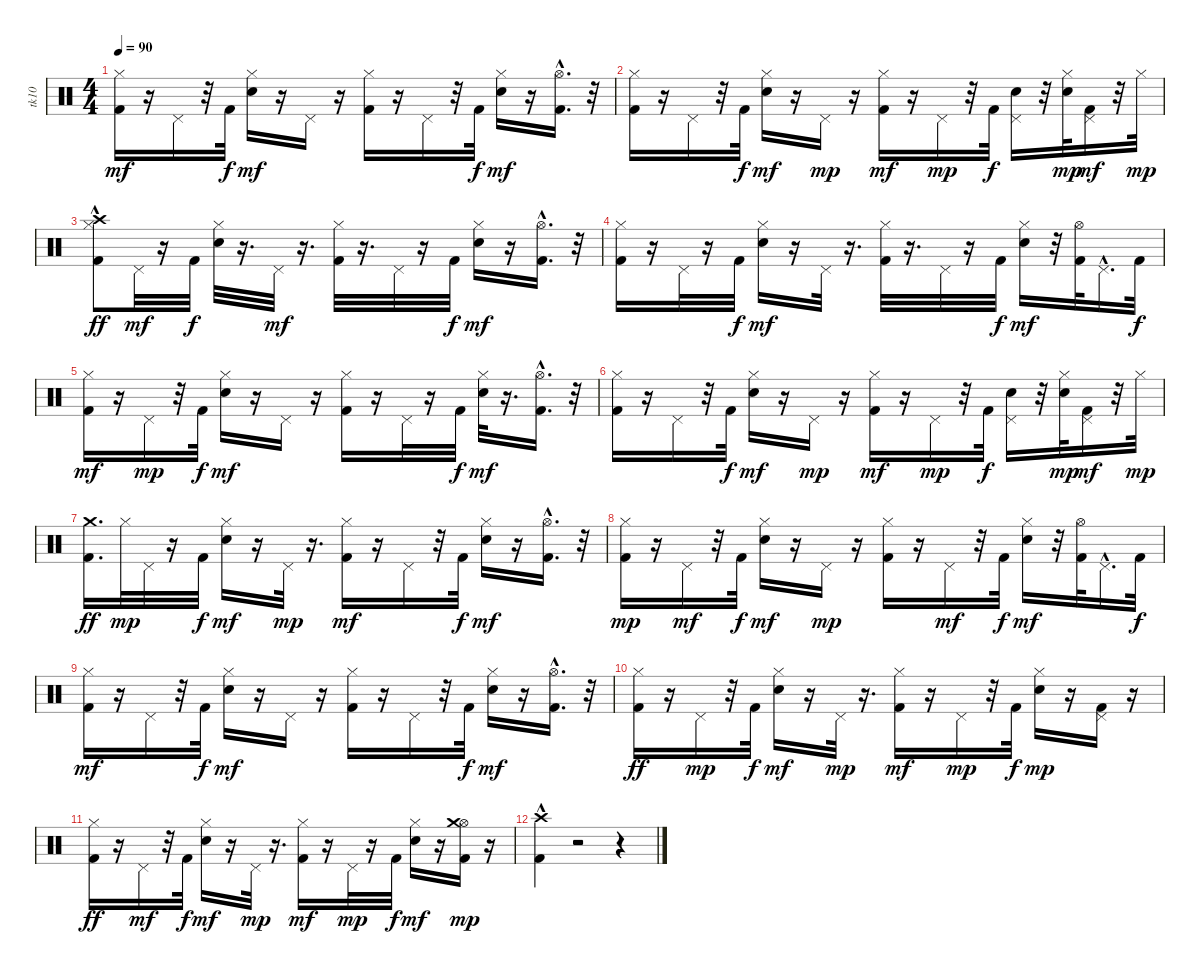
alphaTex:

\track ("tk10" "tk10") {instrument percussion}
\staff {score}
\articulation defaults
\ts (4 4)
\tempo 90
\clef neutral
\ks c
("Kick (hit) 2" "Hi-Hat (closed)").16{dy mf} r.16 "Pedal Hi-Hat (hit)".16 r.32 "Kick (hit) 2".32{dy f} ("Hi-Hat (closed)" "Electric Snare (hit)").16{dy mf} r.16 "Pedal Hi-Hat (hit)".16 r.16 ("Hi-Hat (closed)" "Kick (hit) 2").16 r.16 "Pedal Hi-Hat (hit)".16 r.32 "Kick (hit) 2".32{dy f} ("Hi-Hat (closed)" "Electric Snare (hit)").16{dy mf} r.16 ("Kick (hit) 2" "Hi-Hat (open)"{hac}).16{d} r.32 |
("Hi-Hat (closed)" "Kick (hit) 2").16 r.16 "Pedal Hi-Hat (hit)".16 r.32 "Kick (hit) 2".32{dy f} ("Electric Snare (hit)" "Hi-Hat (closed)").16{dy mf} r.16 "Pedal Hi-Hat (hit)".16{dy mp} r.16 ("Kick (hit) 2" "Hi-Hat (closed)").16{dy mf} r.16 "Pedal Hi-Hat (hit)".16{dy mp} r.32 "Kick (hit) 2".32{dy f} ("Electric Snare (hit)" "Pedal Hi-Hat (hit)").16 r.32 ("Electric Snare (hit)" "Hi-Hat (closed)").32{dy mp} ("Kick (hit) 2" "Pedal Hi-Hat (hit)").16{dy mf} r.32 "Hi-Hat (closed)".32{dy mp} |
("Crash high (hit)"{hac} "Kick (hit) 2" "Hi-Hat (closed)").8{dy ff} "Pedal Hi-Hat (hit)".32{dy mf} r.16 "Kick (hit) 2".32{dy f} ("Electric Snare (hit)" "Hi-Hat (closed)").32 r.16{d} "Pedal Hi-Hat (hit)".32{dy mf} r.16{d} ("Kick (hit) 2" "Hi-Hat (closed)").32 r.16{d} "Pedal Hi-Hat (hit)".32 r.16 "Kick (hit) 2".32{dy f} ("Electric Snare (hit)" "Hi-Hat (closed)").16{dy mf} r.16 ("Kick (hit) 2" "Hi-Hat (open)"{hac}).16{d} r.32 |
("Hi-Hat (closed)" "Kick (hit) 2").16 r.16 "Pedal Hi-Hat (hit)".32 r.16 "Kick (hit) 2".32{dy f} ("Electric Snare (hit)" "Hi-Hat (closed)").16{dy mf} r.16 "Pedal Hi-Hat (hit)".32 r.16{d} ("Kick (hit) 2" "Hi-Hat (closed)").32 r.16{d} "Pedal Hi-Hat (hit)".32 r.16 "Kick (hit) 2".32{dy f} ("Electric Snare (hit)" "Hi-Hat (closed)").16{dy mf} r.32 ("Kick (hit) 2" "Hi-Hat (open)").32 "Pedal Hi-Hat (hit)"{hac}.16{d} "Kick (hit) 2".32{dy f} |
("Kick (hit) 2" "Hi-Hat (closed)").16{dy mf} r.16 "Pedal Hi-Hat (hit)".16{dy mp} r.32 "Kick (hit) 2".32{dy f} ("Electric Snare (hit)" "Hi-Hat (closed)").16{dy mf} r.16 "Pedal Hi-Hat (hit)".16 r.16 ("Hi-Hat (closed)" "Kick (hit) 2").16 r.16 "Pedal Hi-Hat (hit)".32 r.16 "Kick (hit) 2".32{dy f} ("Electric Snare (hit)" "Hi-Hat (closed)").32{dy mf} r.16{d} ("Hi-Hat (open)"{hac} "Kick (hit) 2").16{d} r.32 |
("Hi-Hat (closed)" "Kick (hit) 2").16 r.16 "Pedal Hi-Hat (hit)".16 r.32 "Kick (hit) 2".32{dy f} ("Electric Snare (hit)" "Hi-Hat (closed)").16{dy mf} r.16 "Pedal Hi-Hat (hit)".16{dy mp} r.16 ("Kick (hit) 2" "Hi-Hat (closed)").16{dy mf} r.16 "Pedal Hi-Hat (hit)".16{dy mp} r.32 "Kick (hit) 2".32{dy f} ("Electric Snare (hit)" "Pedal Hi-Hat (hit)").16 r.32 ("Electric Snare (hit)" "Hi-Hat (closed)").32{dy mp} ("Kick (hit) 2" "Pedal Hi-Hat (hit)").16{dy mf} r.32 "Hi-Hat (closed)".32{dy mp} |
("Crash medium (hit)" "Kick (hit) 2").16{d dy ff} "Hi-Hat (closed)".32{dy mp} "Pedal Hi-Hat (hit)".32 r.16 "Kick (hit) 2".32{dy f} ("Hi-Hat (closed)" "Electric Snare (hit)").16{dy mf} r.16 "Pedal Hi-Hat (hit)".32{dy mp} r.16{d} ("Hi-Hat (closed)" "Kick (hit) 2").16{dy mf} r.16 "Pedal Hi-Hat (hit)".16 r.32 "Kick (hit) 2".32{dy f} ("Hi-Hat (closed)" "Electric Snare (hit)").16{dy mf} r.16 ("Hi-Hat (open)"{hac} "Kick (hit) 2").16{d} r.32 |
("Hi-Hat (closed)" "Kick (hit) 2").16{dy mp} r.16 "Pedal Hi-Hat (hit)".16{dy mf} r.32 "Kick (hit) 2".32{dy f} ("Hi-Hat (closed)" "Electric Snare (hit)").16{dy mf} r.16 "Pedal Hi-Hat (hit)".16{dy mp} r.16 ("Kick (hit) 2" "Hi-Hat (closed)").16 r.16 "Pedal Hi-Hat (hit)".16{dy mf} r.32 "Kick (hit) 2".32{dy f} ("Electric Snare (hit)" "Hi-Hat (closed)").16{dy mf} r.32 ("Hi-Hat (open)" "Kick (hit) 2").32 "Pedal Hi-Hat (hit)"{hac}.16{d} "Kick (hit) 2".32{dy f} |
("Kick (hit) 2" "Hi-Hat (closed)").16{dy mf} r.16 "Pedal Hi-Hat (hit)".16 r.32 "Kick (hit) 2".32{dy f} ("Hi-Hat (closed)" "Electric Snare (hit)").16{dy mf} r.16 "Pedal Hi-Hat (hit)".16 r.16 ("Hi-Hat (closed)" "Kick (hit) 2").16 r.16 "Pedal Hi-Hat (hit)".16 r.32 "Kick (hit) 2".32{dy f} ("Hi-Hat (closed)" "Electric Snare (hit)").16{dy mf} r.16 ("Kick (hit) 2" "Hi-Hat (open)"{hac}).16{d} r.32 |
("Hi-Hat (closed)" "Kick (hit) 2").16{dy ff} r.16 "Pedal Hi-Hat (hit)".16{dy mp} r.32 "Kick (hit) 2".32{dy f} ("Hi-Hat (closed)" "Electric Snare (hit)").16{dy mf} r.16 "Pedal Hi-Hat (hit)".32{dy mp} r.16{d} ("Hi-Hat (closed)" "Kick (hit) 2").16{dy mf} r.16 "Pedal Hi-Hat (hit)".16{dy mp} r.32 "Kick (hit) 2".32{dy f} ("Hi-Hat (closed)" "Electric Snare (hit)").16{dy mp} r.16 ("Kick (hit) 2" "Pedal Hi-Hat (hit)").16 r.16 |
("Hi-Hat (closed)" "Kick (hit) 2").16{dy ff} r.16 "Pedal Hi-Hat (hit)".16{dy mf} r.32 "Kick (hit) 2".32{dy f} ("Hi-Hat (closed)" "Electric Snare (hit)").16{dy mf} r.16 "Pedal Hi-Hat (hit)".32{dy mp} r.16{d} ("Hi-Hat (closed)" "Kick (hit) 2").16{dy mf} r.16 "Pedal Hi-Hat (hit)".32{dy mp} r.16 "Kick (hit) 2".32{dy f} ("Hi-Hat (closed)" "Electric Snare (hit)").16{dy mf} r.16 ("Hi-Hat (open)" "Kick (hit) 2" "Crash medium (hit)").16{dy mp} r.16 |
("Crash high (hit)"{hac} "Kick (hit) 2").4 r.2 r.4
